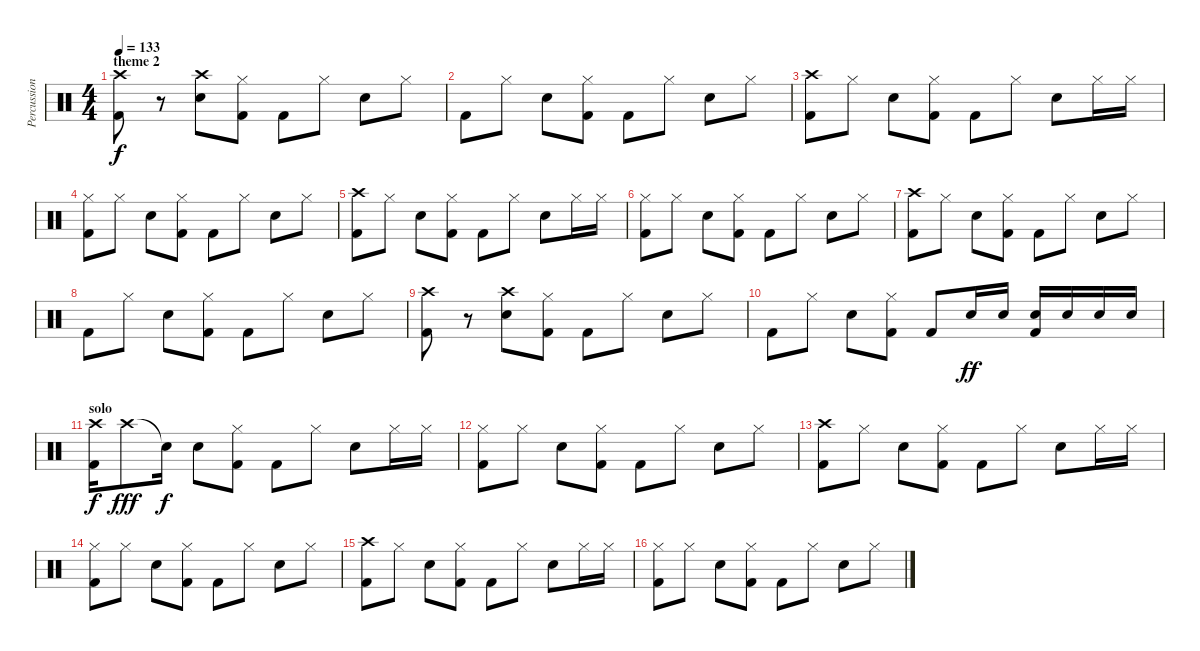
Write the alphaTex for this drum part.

\track ("Percussions" "Percussion") {instrument percussion}
\staff {score}
\articulation defaults
\ts (4 4)
\section ("" "theme 2")
\tempo 133
\clef neutral
\ks c
("Crash high (hit)" "Kick (hit) 2").8{dy f} r.8 ("Crash high (hit)" "Snare (hit) 2").8 ("Hi-Hat (closed)" "Kick (hit) 2").8 "Kick (hit) 2".8 "Hi-Hat (closed)".8 "Snare (hit) 2".8 "Hi-Hat (closed)".8 |
"Kick (hit) 2".8 "Hi-Hat (closed)".8 "Snare (hit) 2".8 ("Hi-Hat (closed)" "Kick (hit) 2").8 "Kick (hit) 2".8 "Hi-Hat (closed)".8 "Snare (hit) 2".8 "Hi-Hat (closed)".8 |
("Crash high (hit)" "Kick (hit) 2").8 "Hi-Hat (closed)".8 "Snare (hit) 2".8 ("Hi-Hat (closed)" "Kick (hit) 2").8 "Kick (hit) 2".8 "Hi-Hat (closed)".8 "Snare (hit) 2".8 "Hi-Hat (closed)".16 "Hi-Hat (closed)".16 |
("Hi-Hat (closed)" "Kick (hit) 2").8 "Hi-Hat (closed)".8 "Snare (hit) 2".8 ("Hi-Hat (closed)" "Kick (hit) 2").8 "Kick (hit) 2".8 "Hi-Hat (closed)".8 "Snare (hit) 2".8 "Hi-Hat (closed)".8 |
("Crash high (hit)" "Kick (hit) 2").8 "Hi-Hat (closed)".8 "Snare (hit) 2".8 ("Hi-Hat (closed)" "Kick (hit) 2").8 "Kick (hit) 2".8 "Hi-Hat (closed)".8 "Snare (hit) 2".8 "Hi-Hat (closed)".16 "Hi-Hat (closed)".16 |
("Hi-Hat (closed)" "Kick (hit) 2").8 "Hi-Hat (closed)".8 "Snare (hit) 2".8 ("Hi-Hat (closed)" "Kick (hit) 2").8 "Kick (hit) 2".8 "Hi-Hat (closed)".8 "Snare (hit) 2".8 "Hi-Hat (closed)".8 |
("Crash high (hit)" "Kick (hit) 2").8 "Hi-Hat (closed)".8 "Snare (hit) 2".8 ("Hi-Hat (closed)" "Kick (hit) 2").8 "Kick (hit) 2".8 "Hi-Hat (closed)".8 "Snare (hit) 2".8 "Hi-Hat (closed)".8 |
"Kick (hit) 2".8 "Hi-Hat (closed)".8 "Snare (hit) 2".8 ("Hi-Hat (closed)" "Kick (hit) 2").8 "Kick (hit) 2".8 "Hi-Hat (closed)".8 "Snare (hit) 2".8 "Hi-Hat (closed)".8 |
("Crash high (hit)" "Kick (hit) 2").8 r.8 ("Crash high (hit)" "Snare (hit) 2").8 ("Hi-Hat (closed)" "Kick (hit) 2").8 "Kick (hit) 2".8 "Hi-Hat (closed)".8 "Snare (hit) 2".8 "Hi-Hat (closed)".8 |
"Kick (hit) 2".8 "Hi-Hat (closed)".8 "Snare (hit) 2".8 ("Hi-Hat (closed)" "Kick (hit) 2").8 "Kick (hit) 2".8 "Snare (hit) 2".16{dy ff} "Snare (hit) 2".16 ("Snare (hit) 2" "Kick (hit) 2").16 "Snare (hit) 2".16 "Snare (hit) 2".16 "Snare (hit) 2".16 |
\section ("" "solo")
("Crash high (hit)" "Kick (hit) 2").16{dy f} "Crash high (hit)".8{dy fff} "Snare (hit)"{t}.16{dy f} "Snare (hit) 2".8 ("Hi-Hat (closed)" "Kick (hit) 2").8 "Kick (hit) 2".8 "Hi-Hat (closed)".8 "Snare (hit) 2".8 "Hi-Hat (closed)".16 "Hi-Hat (closed)".16 |
("Hi-Hat (closed)" "Kick (hit) 2").8 "Hi-Hat (closed)".8 "Snare (hit) 2".8 ("Hi-Hat (closed)" "Kick (hit) 2").8 "Kick (hit) 2".8 "Hi-Hat (closed)".8 "Snare (hit) 2".8 "Hi-Hat (closed)".8 |
("Crash high (hit)" "Kick (hit) 2").8 "Hi-Hat (closed)".8 "Snare (hit) 2".8 ("Hi-Hat (closed)" "Kick (hit) 2").8 "Kick (hit) 2".8 "Hi-Hat (closed)".8 "Snare (hit) 2".8 "Hi-Hat (closed)".16 "Hi-Hat (closed)".16 |
("Hi-Hat (closed)" "Kick (hit) 2").8 "Hi-Hat (closed)".8 "Snare (hit) 2".8 ("Hi-Hat (closed)" "Kick (hit) 2").8 "Kick (hit) 2".8 "Hi-Hat (closed)".8 "Snare (hit) 2".8 "Hi-Hat (closed)".8 |
("Crash high (hit)" "Kick (hit) 2").8 "Hi-Hat (closed)".8 "Snare (hit) 2".8 ("Hi-Hat (closed)" "Kick (hit) 2").8 "Kick (hit) 2".8 "Hi-Hat (closed)".8 "Snare (hit) 2".8 "Hi-Hat (closed)".16 "Hi-Hat (closed)".16 |
("Hi-Hat (closed)" "Kick (hit) 2").8 "Hi-Hat (closed)".8 "Snare (hit) 2".8 ("Hi-Hat (closed)" "Kick (hit) 2").8 "Kick (hit) 2".8 "Hi-Hat (closed)".8 "Snare (hit) 2".8 "Hi-Hat (closed)".8
